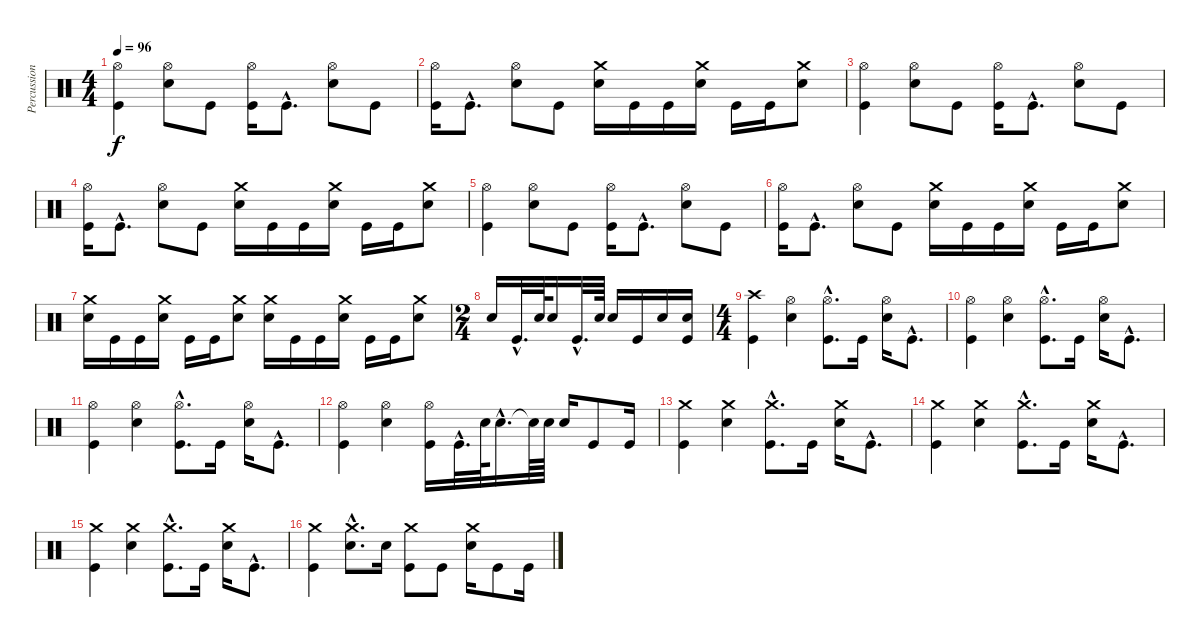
\track ("Percussion" "Percussion") {instrument percussion}
\staff {score}
\articulation defaults
\ts (4 4)
\tempo 96
\clef neutral
\ks c
("Kick (hit)" "Hi-Hat (open)").4{dy f} ("Electric Snare (hit)" "Hi-Hat (open)").8 "Kick (hit)".8 ("Hi-Hat (open)" "Kick (hit)").16 "Kick (hit)"{hac}.8{d} ("Electric Snare (hit)" "Hi-Hat (open)").8 "Kick (hit)".8 |
("Kick (hit)" "Hi-Hat (open)").16 "Kick (hit)"{hac}.8{d} ("Electric Snare (hit)" "Hi-Hat (open)").8 "Kick (hit)".8 ("Electric Snare (hit)" "Crash medium (hit)").16 "Kick (hit)".16 "Kick (hit)".16 ("Electric Snare (hit)" "Crash medium (hit)").16 "Kick (hit)".16 "Kick (hit)".16 ("Crash medium (hit)" "Electric Snare (hit)").8 |
("Kick (hit)" "Hi-Hat (open)").4 ("Electric Snare (hit)" "Hi-Hat (open)").8 "Kick (hit)".8 ("Hi-Hat (open)" "Kick (hit)").16 "Kick (hit)"{hac}.8{d} ("Electric Snare (hit)" "Hi-Hat (open)").8 "Kick (hit)".8 |
("Kick (hit)" "Hi-Hat (open)").16 "Kick (hit)"{hac}.8{d} ("Electric Snare (hit)" "Hi-Hat (open)").8 "Kick (hit)".8 ("Electric Snare (hit)" "Crash medium (hit)").16 "Kick (hit)".16 "Kick (hit)".16 ("Electric Snare (hit)" "Crash medium (hit)").16 "Kick (hit)".16 "Kick (hit)".16 ("Crash medium (hit)" "Electric Snare (hit)").8 |
("Kick (hit)" "Hi-Hat (open)").4 ("Electric Snare (hit)" "Hi-Hat (open)").8 "Kick (hit)".8 ("Hi-Hat (open)" "Kick (hit)").16 "Kick (hit)"{hac}.8{d} ("Electric Snare (hit)" "Hi-Hat (open)").8 "Kick (hit)".8 |
("Kick (hit)" "Hi-Hat (open)").16 "Kick (hit)"{hac}.8{d} ("Electric Snare (hit)" "Hi-Hat (open)").8 "Kick (hit)".8 ("Electric Snare (hit)" "Crash medium (hit)").16 "Kick (hit)".16 "Kick (hit)".16 ("Electric Snare (hit)" "Crash medium (hit)").16 "Kick (hit)".16 "Kick (hit)".16 ("Crash medium (hit)" "Electric Snare (hit)").8 |
("Electric Snare (hit)" "Crash medium (hit)").16 "Kick (hit)".16 "Kick (hit)".16 ("Electric Snare (hit)" "Crash medium (hit)").16 "Kick (hit)".16 "Kick (hit)".16 ("Crash medium (hit)" "Electric Snare (hit)").8 ("Electric Snare (hit)" "Crash medium (hit)").16 "Kick (hit)".16 "Kick (hit)".16 ("Electric Snare (hit)" "Crash medium (hit)").16 "Kick (hit)".16 "Kick (hit)".16 ("Crash medium (hit)" "Electric Snare (hit)").8 |
\ts (2 4)
"Electric Snare (hit)".16 "Kick (hit)"{hac}.32{d} "Electric Snare (hit)".64 "Electric Snare (hit)".16 "Kick (hit)"{hac}.32{d} "Electric Snare (hit)".64 "Electric Snare (hit)".16 "Kick (hit)".16 "Electric Snare (hit)".16 ("Electric Snare (hit)" "Kick (hit)").16 |
\ts (4 4)
("Kick (hit)" "Crash high (hit)").4 ("Electric Snare (hit)" "Hi-Hat (open)").4 ("Kick (hit)"{hac} "Hi-Hat (open)"{hac}).8{d} "Kick (hit)".16 ("Electric Snare (hit)" "Hi-Hat (open)").16 "Kick (hit)"{hac}.8{d} |
("Kick (hit)" "Hi-Hat (open)").4 ("Electric Snare (hit)" "Hi-Hat (open)").4 ("Kick (hit)"{hac} "Hi-Hat (open)"{hac}).8{d} "Kick (hit)".16 ("Electric Snare (hit)" "Hi-Hat (open)").16 "Kick (hit)"{hac}.8{d} |
("Kick (hit)" "Hi-Hat (open)").4 ("Electric Snare (hit)" "Hi-Hat (open)").4 ("Kick (hit)"{hac} "Hi-Hat (open)"{hac}).8{d} "Kick (hit)".16 ("Electric Snare (hit)" "Hi-Hat (open)").16 "Kick (hit)"{hac}.8{d} |
("Kick (hit)" "Hi-Hat (open)").4 ("Electric Snare (hit)" "Hi-Hat (open)").4 ("Hi-Hat (open)" "Kick (hit)").16 "Kick (hit)"{hac}.32{d} "Electric Snare (hit)".64 "Electric Snare (hit)"{hac}.16{d} "Snare (hit)"{t}.64 "Electric Snare (hit)".64 "Electric Snare (hit)".16 "Kick (hit)".8 "Kick (hit)".16 |
("Crash medium (hit)" "Kick (hit)").4 ("Crash medium (hit)" "Electric Snare (hit)").4 ("Crash medium (hit)"{hac} "Kick (hit)"{hac}).8{d} "Kick (hit)".16 ("Crash medium (hit)" "Electric Snare (hit)").16 "Kick (hit)"{hac}.8{d} |
("Crash medium (hit)" "Kick (hit)").4 ("Crash medium (hit)" "Electric Snare (hit)").4 ("Crash medium (hit)"{hac} "Kick (hit)"{hac}).8{d} "Kick (hit)".16 ("Crash medium (hit)" "Electric Snare (hit)").16 "Kick (hit)"{hac}.8{d} |
("Crash medium (hit)" "Kick (hit)").4 ("Crash medium (hit)" "Electric Snare (hit)").4 ("Crash medium (hit)"{hac} "Kick (hit)"{hac}).8{d} "Kick (hit)".16 ("Crash medium (hit)" "Electric Snare (hit)").16 "Kick (hit)"{hac}.8{d} |
("Kick (hit)" "Crash medium (hit)").4 ("Electric Snare (hit)"{hac} "Crash medium (hit)"{hac}).8{d} "Electric Snare (hit)".16 ("Kick (hit)" "Crash medium (hit)").8 "Kick (hit)".8 ("Electric Snare (hit)" "Crash medium (hit)").16 "Kick (hit)".8 "Kick (hit)".16
